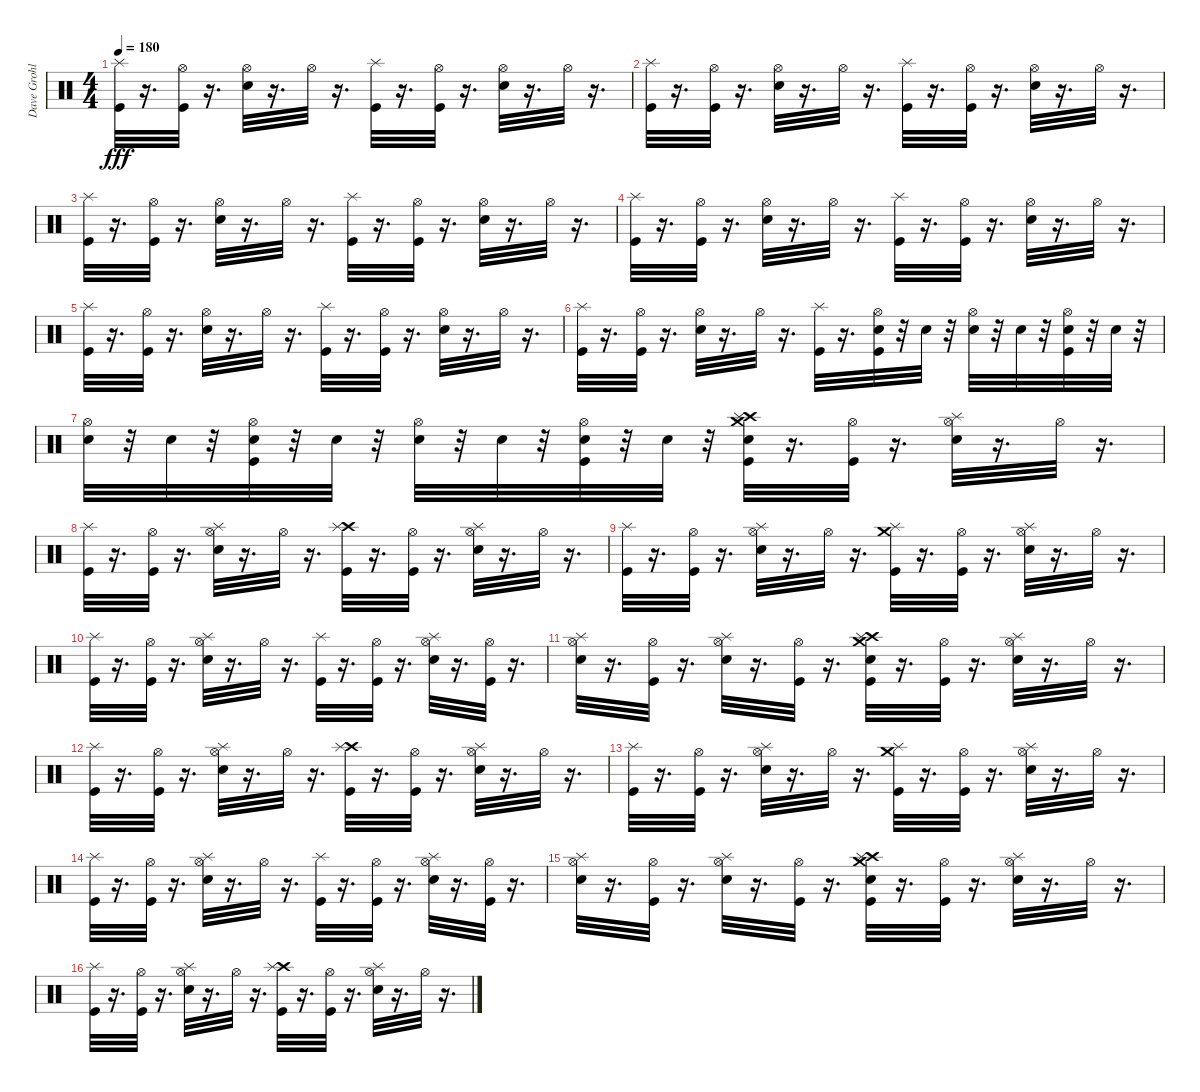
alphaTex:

\track ("Dave Grohl - Drums" "Dave Grohl") {instrument percussion}
\staff {score}
\articulation defaults
\ts (4 4)
\tempo 180
\clef neutral
\ks c
("Splash (hit)" "Kick (hit)").32{dy fff} r.16{d} ("Hi-Hat (open)" "Kick (hit)").32 r.16{d} ("Hi-Hat (open)" "Snare (hit) 2").32 r.16{d} "Hi-Hat (open)".32 r.16{d} ("Splash (hit)" "Kick (hit)").32 r.16{d} ("Hi-Hat (open)" "Kick (hit)").32 r.16{d} ("Hi-Hat (open)" "Snare (hit) 2").32 r.16{d} "Hi-Hat (open)".32 r.16{d} |
("Splash (hit)" "Kick (hit)").32 r.16{d} ("Hi-Hat (open)" "Kick (hit)").32 r.16{d} ("Hi-Hat (open)" "Snare (hit) 2").32 r.16{d} "Hi-Hat (open)".32 r.16{d} ("Splash (hit)" "Kick (hit)").32 r.16{d} ("Hi-Hat (open)" "Kick (hit)").32 r.16{d} ("Hi-Hat (open)" "Snare (hit) 2").32 r.16{d} "Hi-Hat (open)".32 r.16{d} |
("Kick (hit)" "Splash (hit)").32 r.16{d} ("Hi-Hat (open)" "Kick (hit)").32 r.16{d} ("Hi-Hat (open)" "Snare (hit) 2").32 r.16{d} "Hi-Hat (open)".32 r.16{d} ("Kick (hit)" "Splash (hit)").32 r.16{d} ("Hi-Hat (open)" "Kick (hit)").32 r.16{d} ("Hi-Hat (open)" "Snare (hit) 2").32 r.16{d} "Hi-Hat (open)".32 r.16{d} |
("Splash (hit)" "Kick (hit)").32 r.16{d} ("Hi-Hat (open)" "Kick (hit)").32 r.16{d} ("Hi-Hat (open)" "Snare (hit) 2").32 r.16{d} "Hi-Hat (open)".32 r.16{d} ("Splash (hit)" "Kick (hit)").32 r.16{d} ("Hi-Hat (open)" "Kick (hit)").32 r.16{d} ("Hi-Hat (open)" "Snare (hit) 2").32 r.16{d} "Hi-Hat (open)".32 r.16{d} |
("Splash (hit)" "Kick (hit)").32 r.16{d} ("Hi-Hat (open)" "Kick (hit)").32 r.16{d} ("Hi-Hat (open)" "Snare (hit) 2").32 r.16{d} "Hi-Hat (open)".32 r.16{d} ("Splash (hit)" "Kick (hit)").32 r.16{d} ("Hi-Hat (open)" "Kick (hit)").32 r.16{d} ("Hi-Hat (open)" "Snare (hit) 2").32 r.16{d} "Hi-Hat (open)".32 r.16{d} |
("Splash (hit)" "Kick (hit)").32 r.16{d} ("Hi-Hat (open)" "Kick (hit)").32 r.16{d} ("Hi-Hat (open)" "Snare (hit) 2").32 r.16{d} "Hi-Hat (open)".32 r.16{d} ("Splash (hit)" "Kick (hit)").32 r.16{d} ("Snare (hit) 2" "Hi-Hat (open)" "Kick (hit)").32 r.32 "Snare (hit) 2".32 r.32 ("Hi-Hat (open)" "Snare (hit) 2").32 r.32 "Snare (hit) 2".32 r.32 ("Snare (hit) 2" "Hi-Hat (open)" "Kick (hit)").32 r.32 "Snare (hit) 2".32 r.32 |
("Hi-Hat (open)" "Snare (hit) 2").32 r.32 "Snare (hit) 2".32 r.32 ("Snare (hit) 2" "Hi-Hat (open)" "Kick (hit)").32 r.32 "Snare (hit) 2".32 r.32 ("Hi-Hat (open)" "Snare (hit) 2").32 r.32 "Snare (hit) 2".32 r.32 ("Snare (hit) 2" "Hi-Hat (open)" "Kick (hit)").32 r.32 "Snare (hit) 2".32 r.32 ("Crash high (hit)" "Crash medium (hit)" "Splash (hit)" "Snare (hit) 2" "Kick (hit)").32 r.16{d} ("Hi-Hat (open)" "Kick (hit)").32 r.16{d} ("Splash (hit)" "Hi-Hat (open)" "Snare (hit) 2").32 r.16{d} "Hi-Hat (open)".32 r.16{d} |
("Splash (hit)" "Kick (hit)").32 r.16{d} ("Hi-Hat (open)" "Kick (hit)").32 r.16{d} ("Splash (hit)" "Hi-Hat (open)" "Snare (hit) 2").32 r.16{d} "Hi-Hat (open)".32 r.16{d} ("Crash high (hit)" "Splash (hit)" "Kick (hit)").32 r.16{d} ("Hi-Hat (open)" "Kick (hit)").32 r.16{d} ("Splash (hit)" "Hi-Hat (open)" "Snare (hit) 2").32 r.16{d} "Hi-Hat (open)".32 r.16{d} |
("Splash (hit)" "Kick (hit)").32 r.16{d} ("Hi-Hat (open)" "Kick (hit)").32 r.16{d} ("Splash (hit)" "Hi-Hat (open)" "Snare (hit) 2").32 r.16{d} "Hi-Hat (open)".32 r.16{d} ("Crash medium (hit)" "Splash (hit)" "Kick (hit)").32 r.16{d} ("Hi-Hat (open)" "Kick (hit)").32 r.16{d} ("Splash (hit)" "Hi-Hat (open)" "Snare (hit) 2").32 r.16{d} "Hi-Hat (open)".32 r.16{d} |
("Splash (hit)" "Kick (hit)").32 r.16{d} ("Hi-Hat (open)" "Kick (hit)").32 r.16{d} ("Splash (hit)" "Hi-Hat (open)" "Snare (hit) 2").32 r.16{d} "Hi-Hat (open)".32 r.16{d} ("Splash (hit)" "Kick (hit)").32 r.16{d} ("Hi-Hat (open)" "Kick (hit)").32 r.16{d} ("Splash (hit)" "Hi-Hat (open)" "Snare (hit) 2").32 r.16{d} ("Hi-Hat (open)" "Kick (hit)").32 r.16{d} |
("Splash (hit)" "Hi-Hat (open)" "Snare (hit) 2").32 r.16{d} ("Hi-Hat (open)" "Kick (hit)").32 r.16{d} ("Splash (hit)" "Hi-Hat (open)" "Snare (hit) 2").32 r.16{d} ("Hi-Hat (open)" "Kick (hit)").32 r.16{d} ("Crash high (hit)" "Crash medium (hit)" "Splash (hit)" "Snare (hit) 2" "Kick (hit)").32 r.16{d} ("Hi-Hat (open)" "Kick (hit)").32 r.16{d} ("Splash (hit)" "Hi-Hat (open)" "Snare (hit) 2").32 r.16{d} "Hi-Hat (open)".32 r.16{d} |
("Splash (hit)" "Kick (hit)").32 r.16{d} ("Hi-Hat (open)" "Kick (hit)").32 r.16{d} ("Splash (hit)" "Hi-Hat (open)" "Snare (hit) 2").32 r.16{d} "Hi-Hat (open)".32 r.16{d} ("Crash high (hit)" "Splash (hit)" "Kick (hit)").32 r.16{d} ("Hi-Hat (open)" "Kick (hit)").32 r.16{d} ("Splash (hit)" "Hi-Hat (open)" "Snare (hit) 2").32 r.16{d} "Hi-Hat (open)".32 r.16{d} |
("Splash (hit)" "Kick (hit)").32 r.16{d} ("Hi-Hat (open)" "Kick (hit)").32 r.16{d} ("Splash (hit)" "Hi-Hat (open)" "Snare (hit) 2").32 r.16{d} "Hi-Hat (open)".32 r.16{d} ("Crash medium (hit)" "Splash (hit)" "Kick (hit)").32 r.16{d} ("Hi-Hat (open)" "Kick (hit)").32 r.16{d} ("Splash (hit)" "Hi-Hat (open)" "Snare (hit) 2").32 r.16{d} "Hi-Hat (open)".32 r.16{d} |
("Splash (hit)" "Kick (hit)").32 r.16{d} ("Hi-Hat (open)" "Kick (hit)").32 r.16{d} ("Splash (hit)" "Hi-Hat (open)" "Snare (hit) 2").32 r.16{d} "Hi-Hat (open)".32 r.16{d} ("Splash (hit)" "Kick (hit)").32 r.16{d} ("Hi-Hat (open)" "Kick (hit)").32 r.16{d} ("Splash (hit)" "Hi-Hat (open)" "Snare (hit) 2").32 r.16{d} ("Hi-Hat (open)" "Kick (hit)").32 r.16{d} |
("Splash (hit)" "Hi-Hat (open)" "Snare (hit) 2").32 r.16{d} ("Hi-Hat (open)" "Kick (hit)").32 r.16{d} ("Splash (hit)" "Hi-Hat (open)" "Snare (hit) 2").32 r.16{d} ("Hi-Hat (open)" "Kick (hit)").32 r.16{d} ("Crash high (hit)" "Crash medium (hit)" "Splash (hit)" "Snare (hit) 2" "Kick (hit)").32 r.16{d} ("Hi-Hat (open)" "Kick (hit)").32 r.16{d} ("Splash (hit)" "Hi-Hat (open)" "Snare (hit) 2").32 r.16{d} "Hi-Hat (open)".32 r.16{d} |
("Splash (hit)" "Kick (hit)").32 r.16{d} ("Hi-Hat (open)" "Kick (hit)").32 r.16{d} ("Splash (hit)" "Hi-Hat (open)" "Snare (hit) 2").32 r.16{d} "Hi-Hat (open)".32 r.16{d} ("Crash high (hit)" "Splash (hit)" "Kick (hit)").32 r.16{d} ("Hi-Hat (open)" "Kick (hit)").32 r.16{d} ("Splash (hit)" "Hi-Hat (open)" "Snare (hit) 2").32 r.16{d} "Hi-Hat (open)".32 r.16{d}
